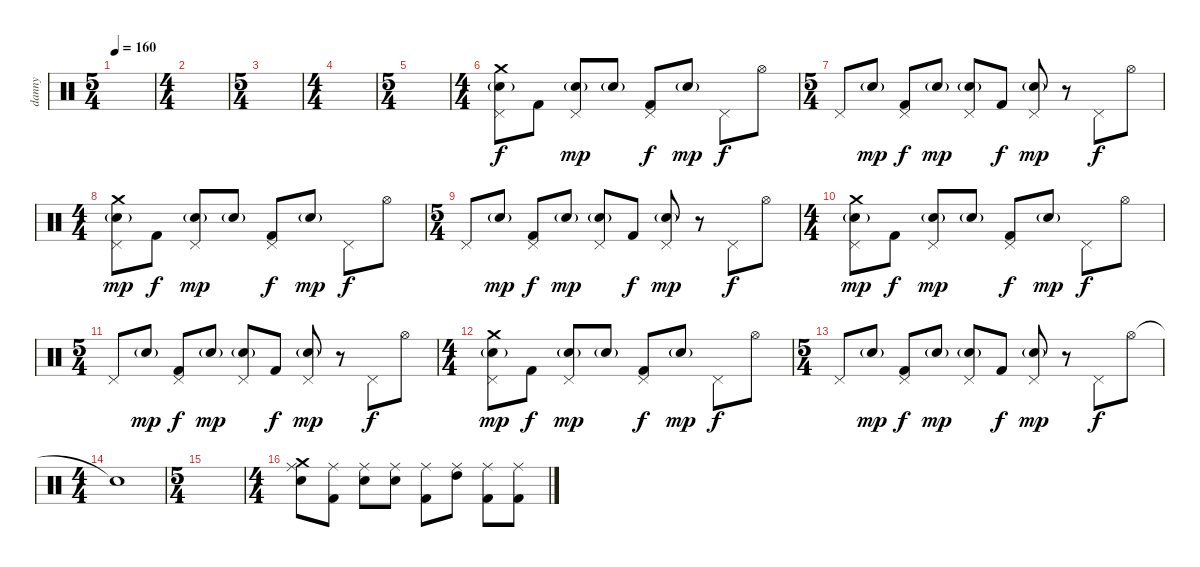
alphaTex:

\track ("danny" "danny") {instrument percussion}
\staff {score}
\articulation defaults
\ts (5 4)
\tempo 160
\clef neutral
\ks c
|
\ts (4 4)
|
\ts (5 4)
|
\ts (4 4)
|
\ts (5 4)
|
\ts (4 4)
("Crash medium (hit)" "Pedal Hi-Hat (hit)" "Snare (hit) 2"{g}).8 "Kick (hit) 2".8{dy f} ("Pedal Hi-Hat (hit)" "Snare (hit) 2"{g}).8{dy mp} "Snare (hit) 2"{g}.8 ("Pedal Hi-Hat (hit)" "Kick (hit) 2").8{dy f} "Snare (hit) 2"{g}.8{dy mp} "Pedal Hi-Hat (hit)".8{dy f} "Hi-Hat (open)".8 |
\ts (5 4)
"Pedal Hi-Hat (hit)".8 "Snare (hit) 2"{g}.8{dy mp} ("Pedal Hi-Hat (hit)" "Kick (hit) 2").8{dy f} "Snare (hit) 2"{g}.8{dy mp} ("Pedal Hi-Hat (hit)" "Snare (hit) 2"{g}).8 "Kick (hit) 2".8{dy f} ("Pedal Hi-Hat (hit)" "Snare (hit) 2"{g}).8{dy mp} r.8 "Pedal Hi-Hat (hit)".8{dy f} "Hi-Hat (open)".8 |
\ts (4 4)
("Crash medium (hit)" "Pedal Hi-Hat (hit)" "Snare (hit) 2"{g}).8{dy mp} "Kick (hit) 2".8{dy f} ("Pedal Hi-Hat (hit)" "Snare (hit) 2"{g}).8{dy mp} "Snare (hit) 2"{g}.8 ("Pedal Hi-Hat (hit)" "Kick (hit) 2").8{dy f} "Snare (hit) 2"{g}.8{dy mp} "Pedal Hi-Hat (hit)".8{dy f} "Hi-Hat (open)".8 |
\ts (5 4)
"Pedal Hi-Hat (hit)".8 "Snare (hit) 2"{g}.8{dy mp} ("Pedal Hi-Hat (hit)" "Kick (hit) 2").8{dy f} "Snare (hit) 2"{g}.8{dy mp} ("Pedal Hi-Hat (hit)" "Snare (hit) 2"{g}).8 "Kick (hit) 2".8{dy f} ("Pedal Hi-Hat (hit)" "Snare (hit) 2"{g}).8{dy mp} r.8 "Pedal Hi-Hat (hit)".8{dy f} "Hi-Hat (open)".8 |
\ts (4 4)
("Crash medium (hit)" "Pedal Hi-Hat (hit)" "Snare (hit) 2"{g}).8{dy mp} "Kick (hit) 2".8{dy f} ("Pedal Hi-Hat (hit)" "Snare (hit) 2"{g}).8{dy mp} "Snare (hit) 2"{g}.8 ("Pedal Hi-Hat (hit)" "Kick (hit) 2").8{dy f} "Snare (hit) 2"{g}.8{dy mp} "Pedal Hi-Hat (hit)".8{dy f} "Hi-Hat (open)".8 |
\ts (5 4)
"Pedal Hi-Hat (hit)".8 "Snare (hit) 2"{g}.8{dy mp} ("Pedal Hi-Hat (hit)" "Kick (hit) 2").8{dy f} "Snare (hit) 2"{g}.8{dy mp} ("Pedal Hi-Hat (hit)" "Snare (hit) 2"{g}).8 "Kick (hit) 2".8{dy f} ("Pedal Hi-Hat (hit)" "Snare (hit) 2"{g}).8{dy mp} r.8 "Pedal Hi-Hat (hit)".8{dy f} "Hi-Hat (open)".8 |
\ts (4 4)
("Crash medium (hit)" "Pedal Hi-Hat (hit)" "Snare (hit) 2"{g}).8{dy mp} "Kick (hit) 2".8{dy f} ("Pedal Hi-Hat (hit)" "Snare (hit) 2"{g}).8{dy mp} "Snare (hit) 2"{g}.8 ("Pedal Hi-Hat (hit)" "Kick (hit) 2").8{dy f} "Snare (hit) 2"{g}.8{dy mp} "Pedal Hi-Hat (hit)".8{dy f} "Hi-Hat (open)".8 |
\ts (5 4)
"Pedal Hi-Hat (hit)".8 "Snare (hit) 2"{g}.8{dy mp} ("Pedal Hi-Hat (hit)" "Kick (hit) 2").8{dy f} "Snare (hit) 2"{g}.8{dy mp} ("Pedal Hi-Hat (hit)" "Snare (hit) 2"{g}).8 "Kick (hit) 2".8{dy f} ("Pedal Hi-Hat (hit)" "Snare (hit) 2"{g}).8{dy mp} r.8 "Pedal Hi-Hat (hit)".8{dy f} "Hi-Hat (open)".8 |
\ts (4 4)
"Snare (hit)"{t}.1 |
\ts (5 4)
|
\ts (4 4)
("Crash medium (hit)" "Ride (middle)" "Snare (hit) 2").8 ("Ride (middle)" "Kick (hit) 2").8 ("Ride (middle)" "Snare (hit) 2").8 ("Ride (middle)" "Snare (hit) 2").8 ("Ride (middle)" "Kick (hit) 2").8 ("Ride (middle)" "High Tom (hit)").8 ("Ride (middle)" "Kick (hit) 2").8 ("Ride (middle)" "Kick (hit) 2").8
